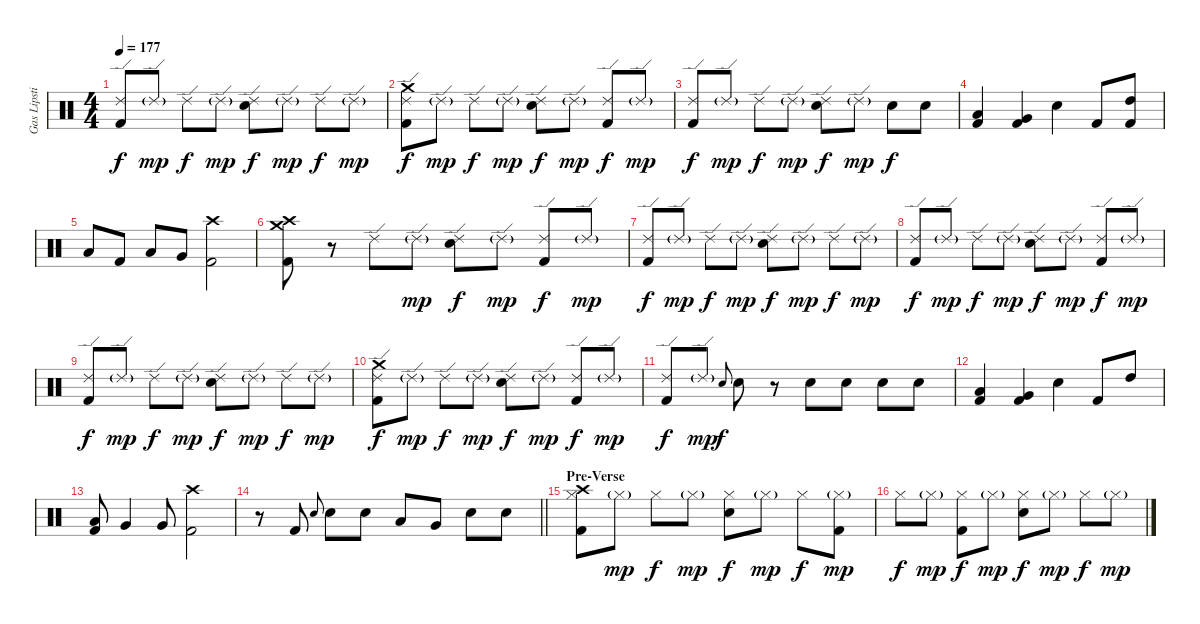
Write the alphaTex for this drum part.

\track ("Gas Lipstick (Drums)" "Gas Lipsti") {instrument percussion}
\staff {score}
\articulation defaults
\ts (4 4)
\tempo 177
\clef neutral
\ks c
("Ride (edge) 2" "Kick (hit) 2").8{dy f} "Ride (edge) 2"{g}.8{dy mp} "Ride (edge) 2".8{dy f} "Ride (edge) 2"{g}.8{dy mp} ("Ride (edge) 2" "Snare (hit) 2").8{dy f} "Ride (edge) 2"{g}.8{dy mp} "Ride (edge) 2".8{dy f} "Ride (edge) 2"{g}.8{dy mp} |
("Crash medium (hit)" "Ride (edge) 2" "Kick (hit) 2").8{dy f} "Ride (edge) 2"{g}.8{dy mp} "Ride (edge) 2".8{dy f} "Ride (edge) 2"{g}.8{dy mp} ("Ride (edge) 2" "Snare (hit) 2").8{dy f} "Ride (edge) 2"{g}.8{dy mp} ("Ride (edge) 2" "Kick (hit) 2").8{dy f} "Ride (edge) 2"{g}.8{dy mp} |
("Ride (edge) 2" "Kick (hit) 2").8{dy f} "Ride (edge) 2"{g}.8{dy mp} "Ride (edge) 2".8{dy f} "Ride (edge) 2"{g}.8{dy mp} ("Ride (edge) 2" "Snare (hit) 2").8{dy f} "Ride (edge) 2"{g}.8{dy mp} "Snare (hit) 2".8{dy f} "Snare (hit) 2".8 |
("Low Tom (hit)" "Kick (hit) 2").4 ("Very Low Tom (hit)" "Kick (hit) 2").4 "Snare (hit) 2".4 "Kick (hit) 2".8 ("High Tom (hit)" "Kick (hit) 2").8 |
"Low Tom (hit)".8 "Kick (hit) 2".8 "Low Tom (hit)".8 "Very Low Tom (hit)".8 ("Crash high (hit)" "Kick (hit) 2").2 |
("Crash medium (hit)" "Crash high (hit)" "Kick (hit) 2").8 r.8 "Ride (edge) 2".8 "Ride (edge) 2"{g}.8{dy mp} ("Ride (edge) 2" "Snare (hit) 2").8{dy f} "Ride (edge) 2"{g}.8{dy mp} ("Ride (edge) 2" "Kick (hit) 2").8{dy f} "Ride (edge) 2"{g}.8{dy mp} |
("Ride (edge) 2" "Kick (hit) 2").8{dy f} "Ride (edge) 2"{g}.8{dy mp} "Ride (edge) 2".8{dy f} "Ride (edge) 2"{g}.8{dy mp} ("Ride (edge) 2" "Snare (hit) 2").8{dy f} "Ride (edge) 2"{g}.8{dy mp} "Ride (edge) 2".8{dy f} "Ride (edge) 2"{g}.8{dy mp} |
("Ride (edge) 2" "Kick (hit) 2").8{dy f} "Ride (edge) 2"{g}.8{dy mp} "Ride (edge) 2".8{dy f} "Ride (edge) 2"{g}.8{dy mp} ("Ride (edge) 2" "Snare (hit) 2").8{dy f} "Ride (edge) 2"{g}.8{dy mp} ("Ride (edge) 2" "Kick (hit) 2").8{dy f} "Ride (edge) 2"{g}.8{dy mp} |
("Ride (edge) 2" "Kick (hit) 2").8{dy f} "Ride (edge) 2"{g}.8{dy mp} "Ride (edge) 2".8{dy f} "Ride (edge) 2"{g}.8{dy mp} ("Ride (edge) 2" "Snare (hit) 2").8{dy f} "Ride (edge) 2"{g}.8{dy mp} "Ride (edge) 2".8{dy f} "Ride (edge) 2"{g}.8{dy mp} |
("Crash medium (hit)" "Ride (edge) 2" "Kick (hit) 2").8{dy f} "Ride (edge) 2"{g}.8{dy mp} "Ride (edge) 2".8{dy f} "Ride (edge) 2"{g}.8{dy mp} ("Ride (edge) 2" "Snare (hit) 2").8{dy f} "Ride (edge) 2"{g}.8{dy mp} ("Ride (edge) 2" "Kick (hit) 2").8{dy f} "Ride (edge) 2"{g}.8{dy mp} |
("Ride (edge) 2" "Kick (hit) 2").8{dy f} "Ride (edge) 2"{g}.8{dy mp} "Snare (hit) 2".8{gr onbeat dy f} "Snare (hit) 2".8 r.8 "Snare (hit) 2".8 "Snare (hit) 2".8 "Snare (hit) 2".8 "Snare (hit) 2".8 |
("Low Tom (hit)" "Kick (hit) 2").4 ("Very Low Tom (hit)" "Kick (hit) 2").4 "Snare (hit) 2".4 "Kick (hit) 2".8 "High Tom (hit)".8 |
("Low Tom (hit)" "Kick (hit) 2").8 "Very Low Tom (hit)".4 "Very Low Tom (hit)".8 ("Crash high (hit)" "Kick (hit) 2").2 |
\barLineRight lightlight
r.8 "Kick (hit) 2".8 "Snare (hit) 2".8{gr onbeat} "Snare (hit) 2".8 "Snare (hit) 2".8 "Low Tom (hit)".8 "Very Low Tom (hit)".8 "Snare (hit) 2".8 "Snare (hit) 2".8 |
\section ("" "Pre-Verse")
("Crash high (hit)" "Hi-Hat (closed)" "Kick (hit) 2").8 "Hi-Hat (closed)"{g}.8{dy mp} "Hi-Hat (closed)".8{dy f} "Hi-Hat (closed)"{g}.8{dy mp} ("Hi-Hat (closed)" "Snare (hit) 2").8{dy f} "Hi-Hat (closed)"{g}.8{dy mp} "Hi-Hat (closed)".8{dy f} ("Hi-Hat (closed)"{g} "Kick (hit) 2").8{dy mp} |
"Hi-Hat (closed)".8{dy f} "Hi-Hat (closed)"{g}.8{dy mp} ("Hi-Hat (closed)" "Kick (hit) 2").8{dy f} "Hi-Hat (closed)"{g}.8{dy mp} ("Hi-Hat (closed)" "Snare (hit) 2").8{dy f} "Hi-Hat (closed)"{g}.8{dy mp} "Hi-Hat (closed)".8{dy f} "Hi-Hat (closed)"{g}.8{dy mp}
